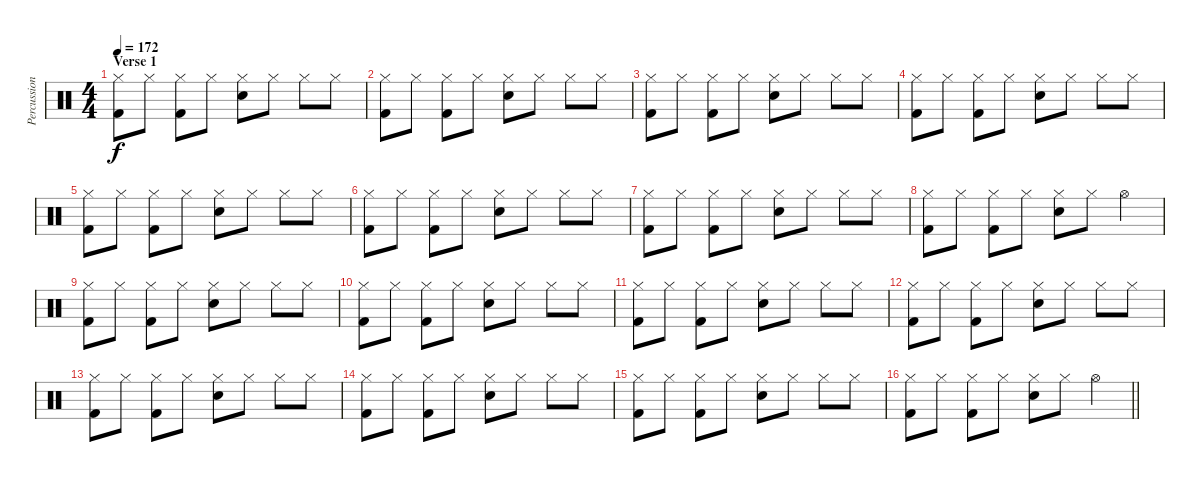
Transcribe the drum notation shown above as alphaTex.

\track ("Percussion" "Percussion") {instrument percussion}
\staff {score}
\articulation defaults
\ts (4 4)
\section ("" "Verse 1")
\tempo 172
\clef neutral
\ks c
("Hi-Hat (closed)" "Kick (hit) 2").8{dy f} "Hi-Hat (closed)".8 ("Hi-Hat (closed)" "Kick (hit) 2").8 "Hi-Hat (closed)".8 ("Hi-Hat (closed)" "Electric Snare (hit)").8 "Hi-Hat (closed)".8 "Hi-Hat (closed)".8 "Hi-Hat (closed)".8 |
("Hi-Hat (closed)" "Kick (hit) 2").8 "Hi-Hat (closed)".8 ("Hi-Hat (closed)" "Kick (hit) 2").8 "Hi-Hat (closed)".8 ("Hi-Hat (closed)" "Electric Snare (hit)").8 "Hi-Hat (closed)".8 "Hi-Hat (closed)".8 "Hi-Hat (closed)".8 |
("Hi-Hat (closed)" "Kick (hit) 2").8 "Hi-Hat (closed)".8 ("Hi-Hat (closed)" "Kick (hit) 2").8 "Hi-Hat (closed)".8 ("Hi-Hat (closed)" "Electric Snare (hit)").8 "Hi-Hat (closed)".8 "Hi-Hat (closed)".8 "Hi-Hat (closed)".8 |
("Hi-Hat (closed)" "Kick (hit) 2").8 "Hi-Hat (closed)".8 ("Hi-Hat (closed)" "Kick (hit) 2").8 "Hi-Hat (closed)".8 ("Hi-Hat (closed)" "Electric Snare (hit)").8 "Hi-Hat (closed)".8 "Hi-Hat (closed)".8 "Hi-Hat (closed)".8 |
("Hi-Hat (closed)" "Kick (hit) 2").8 "Hi-Hat (closed)".8 ("Hi-Hat (closed)" "Kick (hit) 2").8 "Hi-Hat (closed)".8 ("Hi-Hat (closed)" "Electric Snare (hit)").8 "Hi-Hat (closed)".8 "Hi-Hat (closed)".8 "Hi-Hat (closed)".8 |
("Hi-Hat (closed)" "Kick (hit) 2").8 "Hi-Hat (closed)".8 ("Hi-Hat (closed)" "Kick (hit) 2").8 "Hi-Hat (closed)".8 ("Hi-Hat (closed)" "Electric Snare (hit)").8 "Hi-Hat (closed)".8 "Hi-Hat (closed)".8 "Hi-Hat (closed)".8 |
("Hi-Hat (closed)" "Kick (hit) 2").8 "Hi-Hat (closed)".8 ("Hi-Hat (closed)" "Kick (hit) 2").8 "Hi-Hat (closed)".8 ("Hi-Hat (closed)" "Electric Snare (hit)").8 "Hi-Hat (closed)".8 "Hi-Hat (closed)".8 "Hi-Hat (closed)".8 |
("Hi-Hat (closed)" "Kick (hit) 2").8 "Hi-Hat (closed)".8 ("Hi-Hat (closed)" "Kick (hit) 2").8 "Hi-Hat (closed)".8 ("Hi-Hat (closed)" "Electric Snare (hit)").8 "Hi-Hat (closed)".8 "Hi-Hat (open)".4 |
("Hi-Hat (closed)" "Kick (hit) 2").8 "Hi-Hat (closed)".8 ("Hi-Hat (closed)" "Kick (hit) 2").8 "Hi-Hat (closed)".8 ("Hi-Hat (closed)" "Electric Snare (hit)").8 "Hi-Hat (closed)".8 "Hi-Hat (closed)".8 "Hi-Hat (closed)".8 |
("Hi-Hat (closed)" "Kick (hit) 2").8 "Hi-Hat (closed)".8 ("Hi-Hat (closed)" "Kick (hit) 2").8 "Hi-Hat (closed)".8 ("Hi-Hat (closed)" "Electric Snare (hit)").8 "Hi-Hat (closed)".8 "Hi-Hat (closed)".8 "Hi-Hat (closed)".8 |
("Hi-Hat (closed)" "Kick (hit) 2").8 "Hi-Hat (closed)".8 ("Hi-Hat (closed)" "Kick (hit) 2").8 "Hi-Hat (closed)".8 ("Hi-Hat (closed)" "Electric Snare (hit)").8 "Hi-Hat (closed)".8 "Hi-Hat (closed)".8 "Hi-Hat (closed)".8 |
("Hi-Hat (closed)" "Kick (hit) 2").8 "Hi-Hat (closed)".8 ("Hi-Hat (closed)" "Kick (hit) 2").8 "Hi-Hat (closed)".8 ("Hi-Hat (closed)" "Electric Snare (hit)").8 "Hi-Hat (closed)".8 "Hi-Hat (closed)".8 "Hi-Hat (closed)".8 |
("Hi-Hat (closed)" "Kick (hit) 2").8 "Hi-Hat (closed)".8 ("Hi-Hat (closed)" "Kick (hit) 2").8 "Hi-Hat (closed)".8 ("Hi-Hat (closed)" "Electric Snare (hit)").8 "Hi-Hat (closed)".8 "Hi-Hat (closed)".8 "Hi-Hat (closed)".8 |
("Hi-Hat (closed)" "Kick (hit) 2").8 "Hi-Hat (closed)".8 ("Hi-Hat (closed)" "Kick (hit) 2").8 "Hi-Hat (closed)".8 ("Hi-Hat (closed)" "Electric Snare (hit)").8 "Hi-Hat (closed)".8 "Hi-Hat (closed)".8 "Hi-Hat (closed)".8 |
("Hi-Hat (closed)" "Kick (hit) 2").8 "Hi-Hat (closed)".8 ("Hi-Hat (closed)" "Kick (hit) 2").8 "Hi-Hat (closed)".8 ("Hi-Hat (closed)" "Electric Snare (hit)").8 "Hi-Hat (closed)".8 "Hi-Hat (closed)".8 "Hi-Hat (closed)".8 |
\barLineRight lightlight
("Hi-Hat (closed)" "Kick (hit) 2").8 "Hi-Hat (closed)".8 ("Hi-Hat (closed)" "Kick (hit) 2").8 "Hi-Hat (closed)".8 ("Hi-Hat (closed)" "Electric Snare (hit)").8 "Hi-Hat (closed)".8 "Hi-Hat (open)".4
